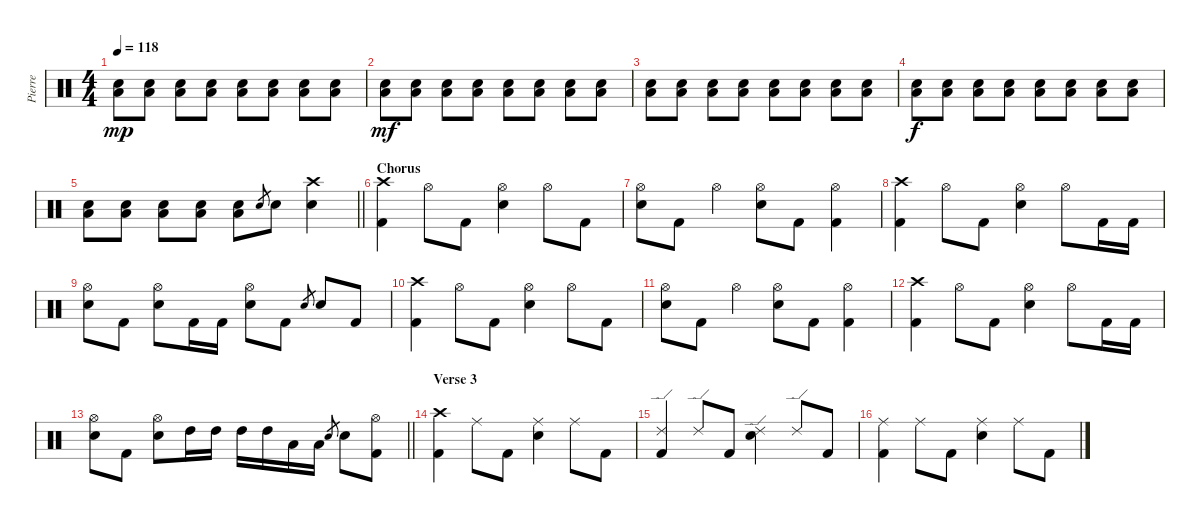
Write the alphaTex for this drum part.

\track ("Pierre" "Pierre") {instrument percussion}
\staff {score}
\articulation defaults
\ts (4 4)
\tempo 118
\clef neutral
\ks c
("Snare (hit) 2" "Low Tom (hit)").8{dy mp} ("Snare (hit) 2" "Low Tom (hit)").8 ("Snare (hit) 2" "Low Tom (hit)").8 ("Snare (hit) 2" "Low Tom (hit)").8 ("Snare (hit) 2" "Low Tom (hit)").8 ("Snare (hit) 2" "Low Tom (hit)").8 ("Snare (hit) 2" "Low Tom (hit)").8 ("Snare (hit) 2" "Low Tom (hit)").8 |
("Snare (hit) 2" "Low Tom (hit)").8{dy mf} ("Snare (hit) 2" "Low Tom (hit)").8 ("Snare (hit) 2" "Low Tom (hit)").8 ("Snare (hit) 2" "Low Tom (hit)").8 ("Snare (hit) 2" "Low Tom (hit)").8 ("Snare (hit) 2" "Low Tom (hit)").8 ("Snare (hit) 2" "Low Tom (hit)").8 ("Snare (hit) 2" "Low Tom (hit)").8 |
("Snare (hit) 2" "Low Tom (hit)").8 ("Snare (hit) 2" "Low Tom (hit)").8 ("Snare (hit) 2" "Low Tom (hit)").8 ("Snare (hit) 2" "Low Tom (hit)").8 ("Snare (hit) 2" "Low Tom (hit)").8 ("Snare (hit) 2" "Low Tom (hit)").8 ("Snare (hit) 2" "Low Tom (hit)").8 ("Snare (hit) 2" "Low Tom (hit)").8 |
("Snare (hit) 2" "Low Tom (hit)").8{dy f} ("Snare (hit) 2" "Low Tom (hit)").8 ("Snare (hit) 2" "Low Tom (hit)").8 ("Snare (hit) 2" "Low Tom (hit)").8 ("Snare (hit) 2" "Low Tom (hit)").8 ("Snare (hit) 2" "Low Tom (hit)").8 ("Snare (hit) 2" "Low Tom (hit)").8 ("Snare (hit) 2" "Low Tom (hit)").8 |
\barLineRight lightlight
("Snare (hit) 2" "Low Tom (hit)").8 ("Snare (hit) 2" "Low Tom (hit)").8 ("Snare (hit) 2" "Low Tom (hit)").8 ("Snare (hit) 2" "Low Tom (hit)").8 ("Snare (hit) 2" "Low Tom (hit)").8 "Snare (hit) 2".8{gr} "Snare (hit) 2".8 ("Crash high (hit)" "Snare (hit) 2").4 |
\section ("" "Chorus")
("Crash high (hit)" "Kick (hit) 2").4 "Hi-Hat (open)".8 "Kick (hit) 2".8 ("Hi-Hat (open)" "Snare (hit) 2").4 "Hi-Hat (open)".8 "Kick (hit) 2".8 |
("Hi-Hat (open)" "Snare (hit) 2").8 "Kick (hit) 2".8 "Hi-Hat (open)".4 ("Hi-Hat (open)" "Snare (hit) 2").8 "Kick (hit) 2".8 ("Hi-Hat (open)" "Kick (hit) 2").4 |
("Crash high (hit)" "Kick (hit) 2").4 "Hi-Hat (open)".8 "Kick (hit) 2".8 ("Hi-Hat (open)" "Snare (hit) 2").4 "Hi-Hat (open)".8 "Kick (hit) 2".16 "Kick (hit) 2".16 |
("Hi-Hat (open)" "Snare (hit) 2").8 "Kick (hit) 2".8 ("Hi-Hat (open)" "Snare (hit) 2").8 "Kick (hit) 2".16 "Kick (hit) 2".16 ("Hi-Hat (open)" "Snare (hit) 2").8 "Kick (hit) 2".8 "Snare (hit) 2".8{gr} "Snare (hit) 2".8 "Kick (hit) 2".8 |
("Crash high (hit)" "Kick (hit) 2").4 "Hi-Hat (open)".8 "Kick (hit) 2".8 ("Hi-Hat (open)" "Snare (hit) 2").4 "Hi-Hat (open)".8 "Kick (hit) 2".8 |
("Hi-Hat (open)" "Snare (hit) 2").8 "Kick (hit) 2".8 "Hi-Hat (open)".4 ("Hi-Hat (open)" "Snare (hit) 2").8 "Kick (hit) 2".8 ("Hi-Hat (open)" "Kick (hit) 2").4 |
("Crash high (hit)" "Kick (hit) 2").4 "Hi-Hat (open)".8 "Kick (hit) 2".8 ("Hi-Hat (open)" "Snare (hit) 2").4 "Hi-Hat (open)".8 "Kick (hit) 2".16 "Kick (hit) 2".16 |
\barLineRight lightlight
("Hi-Hat (open)" "Snare (hit) 2").8 "Kick (hit) 2".8 ("Hi-Hat (open)" "Snare (hit) 2").8 "High Tom (hit)".16 "High Tom (hit)".16 "High Tom (hit)".16 "High Tom (hit)".16 "Low Tom (hit)".16 "Low Tom (hit)".16 "Snare (hit) 2".8{gr} "Snare (hit) 2".8 ("Hi-Hat (open)" "Kick (hit) 2").8 |
\section ("" "Verse 3")
("Crash high (hit)" "Kick (hit) 2").4 "Ride (middle)".8 "Kick (hit) 2".8 ("Ride (middle)" "Snare (hit) 2").4 "Ride (middle)".8 "Kick (hit) 2".8 |
("Ride (edge) 2" "Kick (hit) 2").4 "Ride (edge) 2".8 "Kick (hit) 2".8 ("Ride (edge) 2" "Snare (hit) 2").4 "Ride (edge) 2".8 "Kick (hit) 2".8 |
("Ride (middle)" "Kick (hit) 2").4 "Ride (middle)".8 "Kick (hit) 2".8 ("Ride (middle)" "Snare (hit) 2").4 "Ride (middle)".8 "Kick (hit) 2".8
